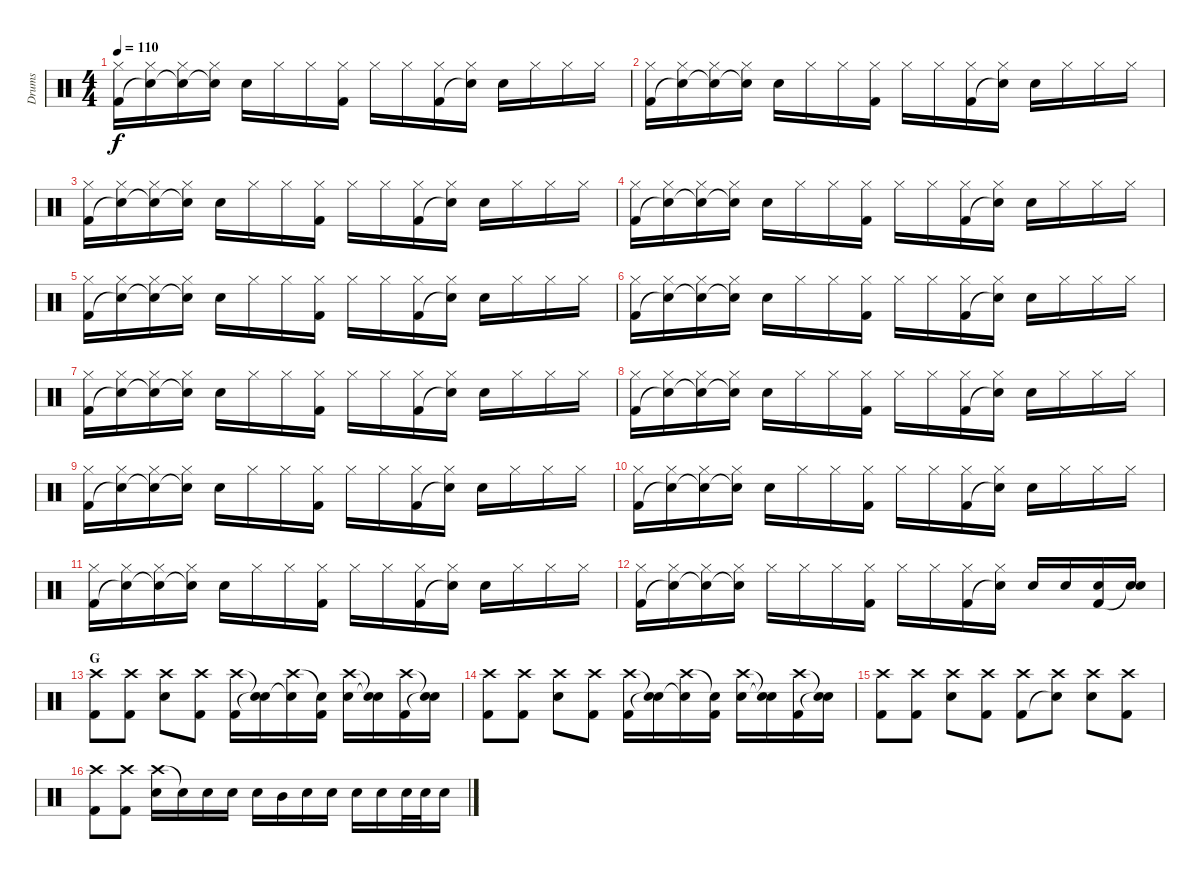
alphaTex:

\track ("Drums" "Drums") {instrument percussion}
\staff {score}
\articulation defaults
\ts (4 4)
\tempo 110
\clef neutral
\ks c
("Hi-Hat (closed)" "Kick (hit) 2").16{dy f} ("Hi-Hat (closed)" "Snare (hit)"{t}).16 ("Hi-Hat (closed)" "Snare (hit)"{t}).16 ("Hi-Hat (closed)" "Snare (hit)"{t}).16 "Snare (hit) 2".16 "Hi-Hat (closed)".16 "Hi-Hat (closed)".16 ("Hi-Hat (closed)" "Kick (hit) 2").16 "Hi-Hat (closed)".16 "Hi-Hat (closed)".16 ("Hi-Hat (closed)" "Kick (hit) 2").16 ("Hi-Hat (closed)" "Snare (hit)"{t}).16 "Snare (hit) 2".16 "Hi-Hat (closed)".16 "Hi-Hat (closed)".16 "Hi-Hat (closed)".16 |
("Hi-Hat (closed)" "Kick (hit) 2").16 ("Hi-Hat (closed)" "Snare (hit)"{t}).16 ("Hi-Hat (closed)" "Snare (hit)"{t}).16 ("Hi-Hat (closed)" "Snare (hit)"{t}).16 "Snare (hit) 2".16 "Hi-Hat (closed)".16 "Hi-Hat (closed)".16 ("Hi-Hat (closed)" "Kick (hit) 2").16 "Hi-Hat (closed)".16 "Hi-Hat (closed)".16 ("Hi-Hat (closed)" "Kick (hit) 2").16 ("Hi-Hat (closed)" "Snare (hit)"{t}).16 "Snare (hit) 2".16 "Hi-Hat (closed)".16 "Hi-Hat (closed)".16 "Hi-Hat (closed)".16 |
("Hi-Hat (closed)" "Kick (hit) 2").16 ("Hi-Hat (closed)" "Snare (hit)"{t}).16 ("Hi-Hat (closed)" "Snare (hit)"{t}).16 ("Hi-Hat (closed)" "Snare (hit)"{t}).16 "Snare (hit) 2".16 "Hi-Hat (closed)".16 "Hi-Hat (closed)".16 ("Hi-Hat (closed)" "Kick (hit) 2").16 "Hi-Hat (closed)".16 "Hi-Hat (closed)".16 ("Hi-Hat (closed)" "Kick (hit) 2").16 ("Hi-Hat (closed)" "Snare (hit)"{t}).16 "Snare (hit) 2".16 "Hi-Hat (closed)".16 "Hi-Hat (closed)".16 "Hi-Hat (closed)".16 |
("Hi-Hat (closed)" "Kick (hit) 2").16 ("Hi-Hat (closed)" "Snare (hit)"{t}).16 ("Hi-Hat (closed)" "Snare (hit)"{t}).16 ("Hi-Hat (closed)" "Snare (hit)"{t}).16 "Snare (hit) 2".16 "Hi-Hat (closed)".16 "Hi-Hat (closed)".16 ("Hi-Hat (closed)" "Kick (hit) 2").16 "Hi-Hat (closed)".16 "Hi-Hat (closed)".16 ("Hi-Hat (closed)" "Kick (hit) 2").16 ("Hi-Hat (closed)" "Snare (hit)"{t}).16 "Snare (hit) 2".16 "Hi-Hat (closed)".16 "Hi-Hat (closed)".16 "Hi-Hat (closed)".16 |
("Hi-Hat (closed)" "Kick (hit) 2").16 ("Hi-Hat (closed)" "Snare (hit)"{t}).16 ("Hi-Hat (closed)" "Snare (hit)"{t}).16 ("Hi-Hat (closed)" "Snare (hit)"{t}).16 "Snare (hit) 2".16 "Hi-Hat (closed)".16 "Hi-Hat (closed)".16 ("Hi-Hat (closed)" "Kick (hit) 2").16 "Hi-Hat (closed)".16 "Hi-Hat (closed)".16 ("Hi-Hat (closed)" "Kick (hit) 2").16 ("Hi-Hat (closed)" "Snare (hit)"{t}).16 "Snare (hit) 2".16 "Hi-Hat (closed)".16 "Hi-Hat (closed)".16 "Hi-Hat (closed)".16 |
("Hi-Hat (closed)" "Kick (hit) 2").16 ("Hi-Hat (closed)" "Snare (hit)"{t}).16 ("Hi-Hat (closed)" "Snare (hit)"{t}).16 ("Hi-Hat (closed)" "Snare (hit)"{t}).16 "Snare (hit) 2".16 "Hi-Hat (closed)".16 "Hi-Hat (closed)".16 ("Hi-Hat (closed)" "Kick (hit) 2").16 "Hi-Hat (closed)".16 "Hi-Hat (closed)".16 ("Hi-Hat (closed)" "Kick (hit) 2").16 ("Hi-Hat (closed)" "Snare (hit)"{t}).16 "Snare (hit) 2".16 "Hi-Hat (closed)".16 "Hi-Hat (closed)".16 "Hi-Hat (closed)".16 |
("Hi-Hat (closed)" "Kick (hit) 2").16 ("Hi-Hat (closed)" "Snare (hit)"{t}).16 ("Hi-Hat (closed)" "Snare (hit)"{t}).16 ("Hi-Hat (closed)" "Snare (hit)"{t}).16 "Snare (hit) 2".16 "Hi-Hat (closed)".16 "Hi-Hat (closed)".16 ("Hi-Hat (closed)" "Kick (hit) 2").16 "Hi-Hat (closed)".16 "Hi-Hat (closed)".16 ("Hi-Hat (closed)" "Kick (hit) 2").16 ("Hi-Hat (closed)" "Snare (hit)"{t}).16 "Snare (hit) 2".16 "Hi-Hat (closed)".16 "Hi-Hat (closed)".16 "Hi-Hat (closed)".16 |
("Hi-Hat (closed)" "Kick (hit) 2").16 ("Hi-Hat (closed)" "Snare (hit)"{t}).16 ("Hi-Hat (closed)" "Snare (hit)"{t}).16 ("Hi-Hat (closed)" "Snare (hit)"{t}).16 "Snare (hit) 2".16 "Hi-Hat (closed)".16 "Hi-Hat (closed)".16 ("Hi-Hat (closed)" "Kick (hit) 2").16 "Hi-Hat (closed)".16 "Hi-Hat (closed)".16 ("Hi-Hat (closed)" "Kick (hit) 2").16 ("Hi-Hat (closed)" "Snare (hit)"{t}).16 "Snare (hit) 2".16 "Hi-Hat (closed)".16 "Hi-Hat (closed)".16 "Hi-Hat (closed)".16 |
("Hi-Hat (closed)" "Kick (hit) 2").16 ("Hi-Hat (closed)" "Snare (hit)"{t}).16 ("Hi-Hat (closed)" "Snare (hit)"{t}).16 ("Hi-Hat (closed)" "Snare (hit)"{t}).16 "Snare (hit) 2".16 "Hi-Hat (closed)".16 "Hi-Hat (closed)".16 ("Hi-Hat (closed)" "Kick (hit) 2").16 "Hi-Hat (closed)".16 "Hi-Hat (closed)".16 ("Hi-Hat (closed)" "Kick (hit) 2").16 ("Hi-Hat (closed)" "Snare (hit)"{t}).16 "Snare (hit) 2".16 "Hi-Hat (closed)".16 "Hi-Hat (closed)".16 "Hi-Hat (closed)".16 |
("Hi-Hat (closed)" "Kick (hit) 2").16 ("Hi-Hat (closed)" "Snare (hit)"{t}).16 ("Hi-Hat (closed)" "Snare (hit)"{t}).16 ("Hi-Hat (closed)" "Snare (hit)"{t}).16 "Snare (hit) 2".16 "Hi-Hat (closed)".16 "Hi-Hat (closed)".16 ("Hi-Hat (closed)" "Kick (hit) 2").16 "Hi-Hat (closed)".16 "Hi-Hat (closed)".16 ("Hi-Hat (closed)" "Kick (hit) 2").16 ("Hi-Hat (closed)" "Snare (hit)"{t}).16 "Snare (hit) 2".16 "Hi-Hat (closed)".16 "Hi-Hat (closed)".16 "Hi-Hat (closed)".16 |
("Hi-Hat (closed)" "Kick (hit) 2").16 ("Hi-Hat (closed)" "Snare (hit)"{t}).16 ("Hi-Hat (closed)" "Snare (hit)"{t}).16 ("Hi-Hat (closed)" "Snare (hit)"{t}).16 "Snare (hit) 2".16 "Hi-Hat (closed)".16 "Hi-Hat (closed)".16 ("Hi-Hat (closed)" "Kick (hit) 2").16 "Hi-Hat (closed)".16 "Hi-Hat (closed)".16 ("Hi-Hat (closed)" "Kick (hit) 2").16 ("Hi-Hat (closed)" "Snare (hit)"{t}).16 "Snare (hit) 2".16 "Hi-Hat (closed)".16 "Hi-Hat (closed)".16 "Hi-Hat (closed)".16 |
("Hi-Hat (closed)" "Kick (hit) 2").16 ("Hi-Hat (closed)" "Snare (hit)"{t}).16 ("Hi-Hat (closed)" "Snare (hit)"{t}).16 ("Hi-Hat (closed)" "Snare (hit)"{t}).16 "Hi-Hat (closed)".16 "Hi-Hat (closed)".16 "Hi-Hat (closed)".16 ("Hi-Hat (closed)" "Kick (hit) 2").16 "Hi-Hat (closed)".16 "Hi-Hat (closed)".16 ("Hi-Hat (closed)" "Kick (hit) 2").16 ("Hi-Hat (closed)" "Snare (hit)"{t}).16 "Snare (hit) 2".16 "Snare (hit) 2".16 ("Snare (hit) 2" "Kick (hit) 2").16 ("Snare (hit) 2" "Snare (hit)"{t}).16 |
\section ("" "G")
("Crash high (hit)" "Kick (hit) 2").8 ("Crash high (hit)" "Kick (hit) 2").8 ("Crash high (hit)" "Snare (hit) 2").8 ("Crash high (hit)" "Kick (hit) 2").8 ("Crash high (hit)" "Kick (hit) 2").16 ("Snare (hit)"{t} "Snare (hit)"{t}).16 ("Crash high (hit)" "Snare (hit)"{t}).16 ("Snare (hit)"{t} "Kick (hit) 2").16 ("Crash high (hit)" "Snare (hit) 2").16 ("Snare (hit)"{t} "Snare (hit)"{t}).16 ("Crash high (hit)" "Kick (hit) 2").16 ("Snare (hit)"{t} "Snare (hit)"{t}).16 |
("Crash high (hit)" "Kick (hit) 2").8 ("Crash high (hit)" "Kick (hit) 2").8 ("Crash high (hit)" "Snare (hit) 2").8 ("Crash high (hit)" "Kick (hit) 2").8 ("Crash high (hit)" "Kick (hit) 2").16 ("Snare (hit)"{t} "Snare (hit)"{t}).16 ("Crash high (hit)" "Snare (hit)"{t}).16 ("Snare (hit)"{t} "Kick (hit) 2").16 ("Crash high (hit)" "Snare (hit) 2").16 ("Snare (hit)"{t} "Snare (hit)"{t}).16 ("Crash high (hit)" "Kick (hit) 2").16 ("Snare (hit)"{t} "Snare (hit)"{t}).16 |
("Crash high (hit)" "Kick (hit) 2").8 ("Crash high (hit)" "Kick (hit) 2").8 ("Crash high (hit)" "Snare (hit) 2").8 ("Crash high (hit)" "Kick (hit) 2").8 ("Crash high (hit)" "Kick (hit) 2").8 ("Crash high (hit)" "Snare (hit)"{t}).8 ("Crash high (hit)" "Snare (hit) 2").8 ("Crash high (hit)" "Kick (hit) 2").8 |
("Crash high (hit)" "Kick (hit) 2").8 ("Crash high (hit)" "Kick (hit) 2").8 ("Crash high (hit)" "Snare (hit) 2").16 "Snare (hit)"{t}.16 "Snare (hit) 2".16 "Snare (hit) 2".16 "Snare (hit) 2".16 "Mid Tom (hit)".16 "Snare (hit) 2".16 "Snare (hit) 2".16 "Snare (hit) 2".16 "Snare (hit) 2".16 "Snare (hit) 2".32 "Snare (hit) 2".32 "Snare (hit) 2".16
